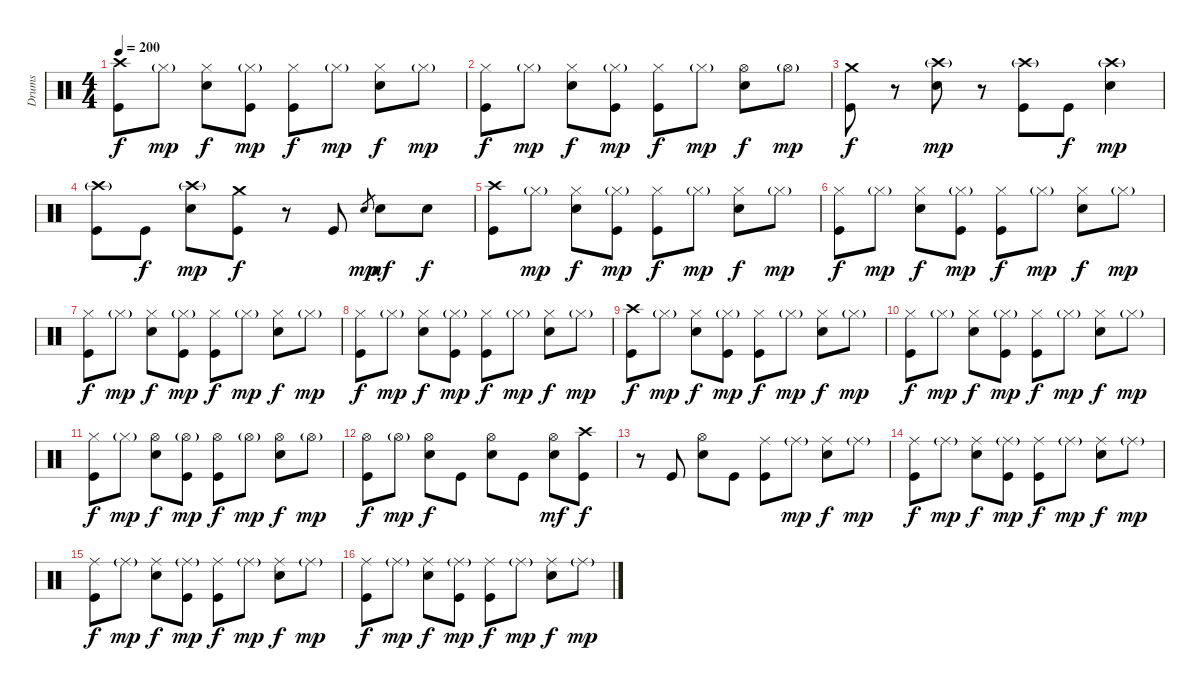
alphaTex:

\track ("Drums" "Drums") {instrument percussion}
\staff {score}
\articulation defaults
\ts (4 4)
\tempo 200
\clef neutral
\ks c
("Crash high (hit)" "Kick (hit)").8{dy f} "Hi-Hat (closed)"{g}.8{dy mp} ("Hi-Hat (closed)" "Electric Snare (hit)").8{dy f} ("Hi-Hat (closed)"{g} "Kick (hit)").8{dy mp} ("Hi-Hat (closed)" "Kick (hit)").8{dy f} "Hi-Hat (closed)"{g}.8{dy mp} ("Hi-Hat (closed)" "Electric Snare (hit)").8{dy f} "Hi-Hat (closed)"{g}.8{dy mp} |
("Hi-Hat (closed)" "Kick (hit)").8{dy f} "Hi-Hat (closed)"{g}.8{dy mp} ("Hi-Hat (closed)" "Electric Snare (hit)").8{dy f} ("Hi-Hat (closed)"{g} "Kick (hit)").8{dy mp} ("Hi-Hat (closed)" "Kick (hit)").8{dy f} "Hi-Hat (closed)"{g}.8{dy mp} ("Hi-Hat (open)" "Electric Snare (hit)").8{dy f} "Hi-Hat (open)"{g}.8{dy mp} |
("Crash medium (hit)" "Kick (hit)").8{dy f} r.8 ("Crash high (hit)"{g} "Electric Snare (hit)").8{dy mp} r.8 ("Crash high (hit)"{g} "Kick (hit)").8 "Kick (hit)".8{dy f} ("Crash high (hit)"{g} "Electric Snare (hit)").4{dy mp} |
("Crash high (hit)"{g} "Kick (hit)").8 "Kick (hit)".8{dy f} ("Crash high (hit)"{g} "Electric Snare (hit)").8{dy mp} ("Crash medium (hit)" "Kick (hit)").8{dy f} r.8 "Kick (hit)".8 "Electric Snare (hit)".8{gr dy mp} "Electric Snare (hit)".8{dy mf} "Electric Snare (hit)".8{dy f} |
("Crash high (hit)" "Kick (hit)").8 "Hi-Hat (closed)"{g}.8{dy mp} ("Hi-Hat (closed)" "Electric Snare (hit)").8{dy f} ("Hi-Hat (closed)"{g} "Kick (hit)").8{dy mp} ("Hi-Hat (closed)" "Kick (hit)").8{dy f} "Hi-Hat (closed)"{g}.8{dy mp} ("Hi-Hat (closed)" "Electric Snare (hit)").8{dy f} "Hi-Hat (closed)"{g}.8{dy mp} |
("Hi-Hat (closed)" "Kick (hit)").8{dy f} "Hi-Hat (closed)"{g}.8{dy mp} ("Hi-Hat (closed)" "Electric Snare (hit)").8{dy f} ("Hi-Hat (closed)"{g} "Kick (hit)").8{dy mp} ("Hi-Hat (closed)" "Kick (hit)").8{dy f} "Hi-Hat (closed)"{g}.8{dy mp} ("Hi-Hat (closed)" "Electric Snare (hit)").8{dy f} "Hi-Hat (closed)"{g}.8{dy mp} |
("Hi-Hat (closed)" "Kick (hit)").8{dy f} "Hi-Hat (closed)"{g}.8{dy mp} ("Hi-Hat (closed)" "Electric Snare (hit)").8{dy f} ("Hi-Hat (closed)"{g} "Kick (hit)").8{dy mp} ("Hi-Hat (closed)" "Kick (hit)").8{dy f} "Hi-Hat (closed)"{g}.8{dy mp} ("Hi-Hat (closed)" "Electric Snare (hit)").8{dy f} "Hi-Hat (closed)"{g}.8{dy mp} |
("Hi-Hat (closed)" "Kick (hit)").8{dy f} "Hi-Hat (closed)"{g}.8{dy mp} ("Hi-Hat (closed)" "Electric Snare (hit)").8{dy f} ("Hi-Hat (closed)"{g} "Kick (hit)").8{dy mp} ("Hi-Hat (closed)" "Kick (hit)").8{dy f} "Hi-Hat (closed)"{g}.8{dy mp} ("Hi-Hat (closed)" "Electric Snare (hit)").8{dy f} "Hi-Hat (closed)"{g}.8{dy mp} |
("Crash high (hit)" "Kick (hit)").8{dy f} "Hi-Hat (closed)"{g}.8{dy mp} ("Hi-Hat (closed)" "Electric Snare (hit)").8{dy f} ("Hi-Hat (closed)"{g} "Kick (hit)").8{dy mp} ("Hi-Hat (closed)" "Kick (hit)").8{dy f} "Hi-Hat (closed)"{g}.8{dy mp} ("Hi-Hat (closed)" "Electric Snare (hit)").8{dy f} "Hi-Hat (closed)"{g}.8{dy mp} |
("Hi-Hat (closed)" "Kick (hit)").8{dy f} "Hi-Hat (closed)"{g}.8{dy mp} ("Hi-Hat (closed)" "Electric Snare (hit)").8{dy f} ("Hi-Hat (closed)"{g} "Kick (hit)").8{dy mp} ("Hi-Hat (closed)" "Kick (hit)").8{dy f} "Hi-Hat (closed)"{g}.8{dy mp} ("Hi-Hat (closed)" "Electric Snare (hit)").8{dy f} "Hi-Hat (closed)"{g}.8{dy mp} |
("Hi-Hat (closed)" "Kick (hit)").8{dy f} "Hi-Hat (closed)"{g}.8{dy mp} ("Hi-Hat (open)" "Electric Snare (hit)").8{dy f} ("Hi-Hat (open)"{g} "Kick (hit)").8{dy mp} ("Hi-Hat (open)" "Kick (hit)").8{dy f} "Hi-Hat (open)"{g}.8{dy mp} ("Hi-Hat (open)" "Electric Snare (hit)").8{dy f} "Hi-Hat (open)"{g}.8{dy mp} |
("Hi-Hat (open)" "Kick (hit)").8{dy f} "Hi-Hat (open)"{g}.8{dy mp} ("Hi-Hat (open)" "Electric Snare (hit)").8{dy f} "Kick (hit)".8 ("Hi-Hat (open)" "Electric Snare (hit)").8 "Kick (hit)".8 ("Hi-Hat (open)" "Electric Snare (hit)").8{dy mf} ("Crash high (hit)" "Kick (hit)").8{dy f} |
r.8 "Kick (hit)".8 ("Hi-Hat (open)" "Electric Snare (hit)").8 "Kick (hit)".8 ("Ride (middle)" "Kick (hit)").8 "Ride (middle)"{g}.8{dy mp} ("Ride (middle)" "Electric Snare (hit)").8{dy f} "Ride (middle)"{g}.8{dy mp} |
("Ride (middle)" "Kick (hit)").8{dy f} "Ride (middle)"{g}.8{dy mp} ("Ride (middle)" "Electric Snare (hit)").8{dy f} ("Ride (middle)"{g} "Kick (hit)").8{dy mp} ("Ride (middle)" "Kick (hit)").8{dy f} "Ride (middle)"{g}.8{dy mp} ("Ride (middle)" "Electric Snare (hit)").8{dy f} "Ride (middle)"{g}.8{dy mp} |
("Ride (middle)" "Kick (hit)").8{dy f} "Ride (middle)"{g}.8{dy mp} ("Ride (middle)" "Electric Snare (hit)").8{dy f} ("Ride (middle)"{g} "Kick (hit)").8{dy mp} ("Ride (middle)" "Kick (hit)").8{dy f} "Ride (middle)"{g}.8{dy mp} ("Ride (middle)" "Electric Snare (hit)").8{dy f} "Ride (middle)"{g}.8{dy mp} |
("Ride (middle)" "Kick (hit)").8{dy f} "Ride (middle)"{g}.8{dy mp} ("Ride (middle)" "Electric Snare (hit)").8{dy f} ("Ride (middle)"{g} "Kick (hit)").8{dy mp} ("Ride (middle)" "Kick (hit)").8{dy f} "Ride (middle)"{g}.8{dy mp} ("Ride (middle)" "Electric Snare (hit)").8{dy f} "Ride (middle)"{g}.8{dy mp}
